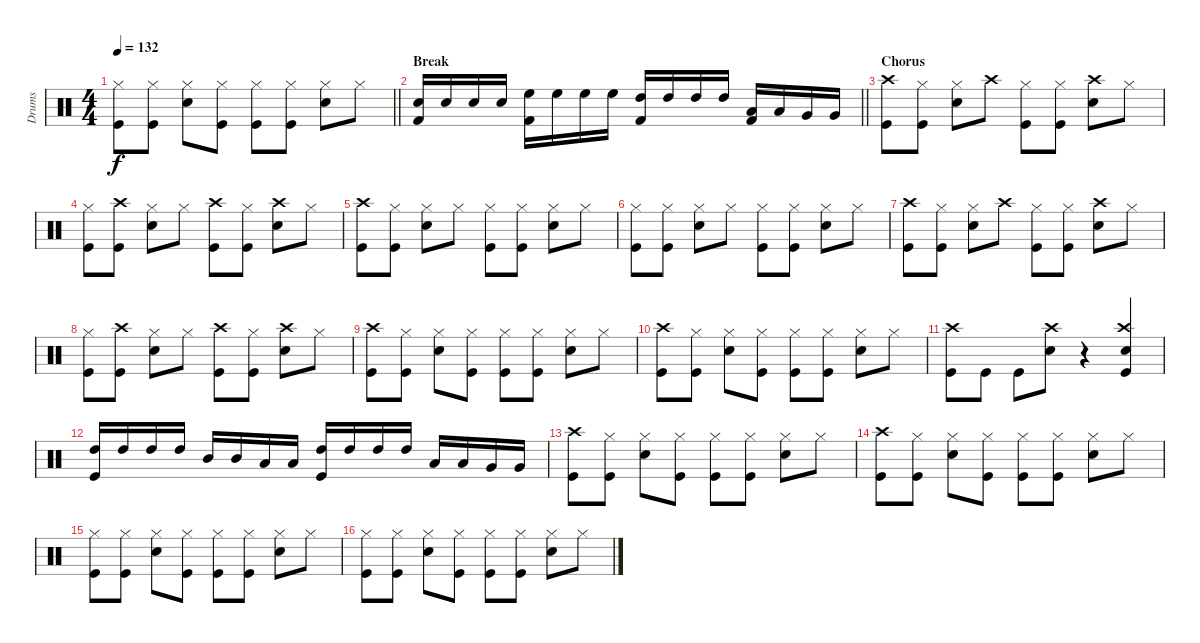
\track ("Drums" "Drums") {instrument percussion}
\staff {score}
\articulation defaults
\ts (4 4)
\tempo 132
\clef neutral
\barLineRight lightlight
\ks c
("Hi-Hat (closed)" "Kick (hit)").8{dy f} ("Hi-Hat (closed)" "Kick (hit)").8 ("Hi-Hat (closed)" "Electric Snare (hit)").8 ("Hi-Hat (closed)" "Kick (hit)").8 ("Hi-Hat (closed)" "Kick (hit)").8 ("Hi-Hat (closed)" "Kick (hit)").8 ("Hi-Hat (closed)" "Electric Snare (hit)").8 "Hi-Hat (closed)".8 |
\section ("" "Break")
\barLineRight lightlight
("Electric Snare (hit)" "Kick (hit) 2").16 "Electric Snare (hit)".16 "Electric Snare (hit)".16 "Electric Snare (hit)".16 ("High Floor Tom (hit)" "Kick (hit) 2").16 "High Floor Tom (hit)".16 "High Floor Tom (hit)".16 "High Floor Tom (hit)".16 ("High Tom (hit)" "Kick (hit) 2").16 "High Tom (hit)".16 "High Tom (hit)".16 "High Tom (hit)".16 ("Low Tom (hit)" "Kick (hit) 2").16 "Low Tom (hit)".16 "Very Low Tom (hit)".16 "Very Low Tom (hit)".16 |
\section ("" "Chorus")
("Crash high (hit)" "Kick (hit)").8 ("Hi-Hat (closed)" "Kick (hit)").8 ("Hi-Hat (closed)" "Snare (hit) 2").8 "Crash high (hit)".8 ("Hi-Hat (closed)" "Kick (hit)").8 ("Hi-Hat (closed)" "Kick (hit)").8 ("Crash high (hit)" "Snare (hit) 2").8 "Hi-Hat (closed)".8 |
("Hi-Hat (closed)" "Kick (hit)").8 ("Crash high (hit)" "Kick (hit)").8 ("Hi-Hat (closed)" "Snare (hit) 2").8 "Hi-Hat (closed)".8 ("Crash high (hit)" "Kick (hit)").8 ("Hi-Hat (closed)" "Kick (hit)").8 ("Crash high (hit)" "Snare (hit) 2").8 "Hi-Hat (closed)".8 |
("Crash high (hit)" "Kick (hit)").8 ("Hi-Hat (closed)" "Kick (hit)").8 ("Hi-Hat (closed)" "Snare (hit) 2").8 "Hi-Hat (closed)".8 ("Hi-Hat (closed)" "Kick (hit)").8 ("Hi-Hat (closed)" "Kick (hit)").8 ("Hi-Hat (closed)" "Snare (hit) 2").8 "Hi-Hat (closed)".8 |
("Hi-Hat (closed)" "Kick (hit)").8 ("Hi-Hat (closed)" "Kick (hit)").8 ("Hi-Hat (closed)" "Snare (hit) 2").8 "Hi-Hat (closed)".8 ("Hi-Hat (closed)" "Kick (hit)").8 ("Hi-Hat (closed)" "Kick (hit)").8 ("Hi-Hat (closed)" "Snare (hit) 2").8 "Hi-Hat (closed)".8 |
("Crash high (hit)" "Kick (hit)").8 ("Hi-Hat (closed)" "Kick (hit)").8 ("Hi-Hat (closed)" "Snare (hit) 2").8 "Crash high (hit)".8 ("Hi-Hat (closed)" "Kick (hit)").8 ("Hi-Hat (closed)" "Kick (hit)").8 ("Crash high (hit)" "Snare (hit) 2").8 "Hi-Hat (closed)".8 |
("Hi-Hat (closed)" "Kick (hit)").8 ("Crash high (hit)" "Kick (hit)").8 ("Hi-Hat (closed)" "Snare (hit) 2").8 "Hi-Hat (closed)".8 ("Crash high (hit)" "Kick (hit)").8 ("Hi-Hat (closed)" "Kick (hit)").8 ("Crash high (hit)" "Snare (hit) 2").8 "Hi-Hat (closed)".8 |
("Crash high (hit)" "Kick (hit)").8 ("Hi-Hat (closed)" "Kick (hit)").8 ("Electric Snare (hit)" "Hi-Hat (closed)").8 ("Kick (hit)" "Hi-Hat (closed)").8 ("Hi-Hat (closed)" "Kick (hit)").8 ("Hi-Hat (closed)" "Kick (hit)").8 ("Hi-Hat (closed)" "Snare (hit) 2").8 "Hi-Hat (closed)".8 |
("Crash high (hit)" "Kick (hit)").8 ("Hi-Hat (closed)" "Kick (hit)").8 ("Electric Snare (hit)" "Hi-Hat (closed)").8 ("Kick (hit)" "Hi-Hat (closed)").8 ("Hi-Hat (closed)" "Kick (hit)").8 ("Hi-Hat (closed)" "Kick (hit)").8 ("Hi-Hat (closed)" "Snare (hit) 2").8 "Hi-Hat (closed)".8 |
("Crash high (hit)" "Kick (hit)").8 "Kick (hit)".8 "Kick (hit)".8 ("Snare (hit) 2" "Crash high (hit)").8 r.4 ("Crash high (hit)" "Snare (hit) 2" "Kick (hit)").4 |
("Kick (hit)" "High Tom (hit)").16 "High Tom (hit)".16 "High Tom (hit)".16 "High Tom (hit)".16 "Mid Tom (hit)".16 "Mid Tom (hit)".16 "Low Tom (hit)".16 "Low Tom (hit)".16 ("Kick (hit)" "High Tom (hit)").16 "High Tom (hit)".16 "High Tom (hit)".16 "High Tom (hit)".16 "Low Tom (hit)".16 "Low Tom (hit)".16 "Very Low Tom (hit)".16 "Very Low Tom (hit)".16 |
("Kick (hit)" "Crash high (hit)").8 ("Hi-Hat (closed)" "Kick (hit)").8 ("Hi-Hat (closed)" "Snare (hit) 2").8 ("Kick (hit)" "Hi-Hat (closed)").8 ("Hi-Hat (closed)" "Kick (hit)").8 ("Hi-Hat (closed)" "Kick (hit)").8 ("Hi-Hat (closed)" "Snare (hit) 2").8 "Hi-Hat (closed)".8 |
("Kick (hit)" "Crash high (hit)").8 ("Kick (hit)" "Hi-Hat (closed)").8 ("Electric Snare (hit)" "Hi-Hat (closed)").8 ("Kick (hit)" "Hi-Hat (closed)").8 ("Kick (hit)" "Hi-Hat (closed)").8 ("Kick (hit)" "Hi-Hat (closed)").8 ("Electric Snare (hit)" "Hi-Hat (closed)").8 "Hi-Hat (closed)".8 |
("Hi-Hat (closed)" "Kick (hit)").8 ("Hi-Hat (closed)" "Kick (hit)").8 ("Hi-Hat (closed)" "Snare (hit) 2").8 ("Kick (hit)" "Hi-Hat (closed)").8 ("Hi-Hat (closed)" "Kick (hit)").8 ("Hi-Hat (closed)" "Kick (hit)").8 ("Hi-Hat (closed)" "Snare (hit) 2").8 "Hi-Hat (closed)".8 |
("Kick (hit)" "Hi-Hat (closed)").8 ("Kick (hit)" "Hi-Hat (closed)").8 ("Electric Snare (hit)" "Hi-Hat (closed)").8 ("Kick (hit)" "Hi-Hat (closed)").8 ("Kick (hit)" "Hi-Hat (closed)").8 ("Kick (hit)" "Hi-Hat (closed)").8 ("Electric Snare (hit)" "Hi-Hat (closed)").8 "Hi-Hat (closed)".8
